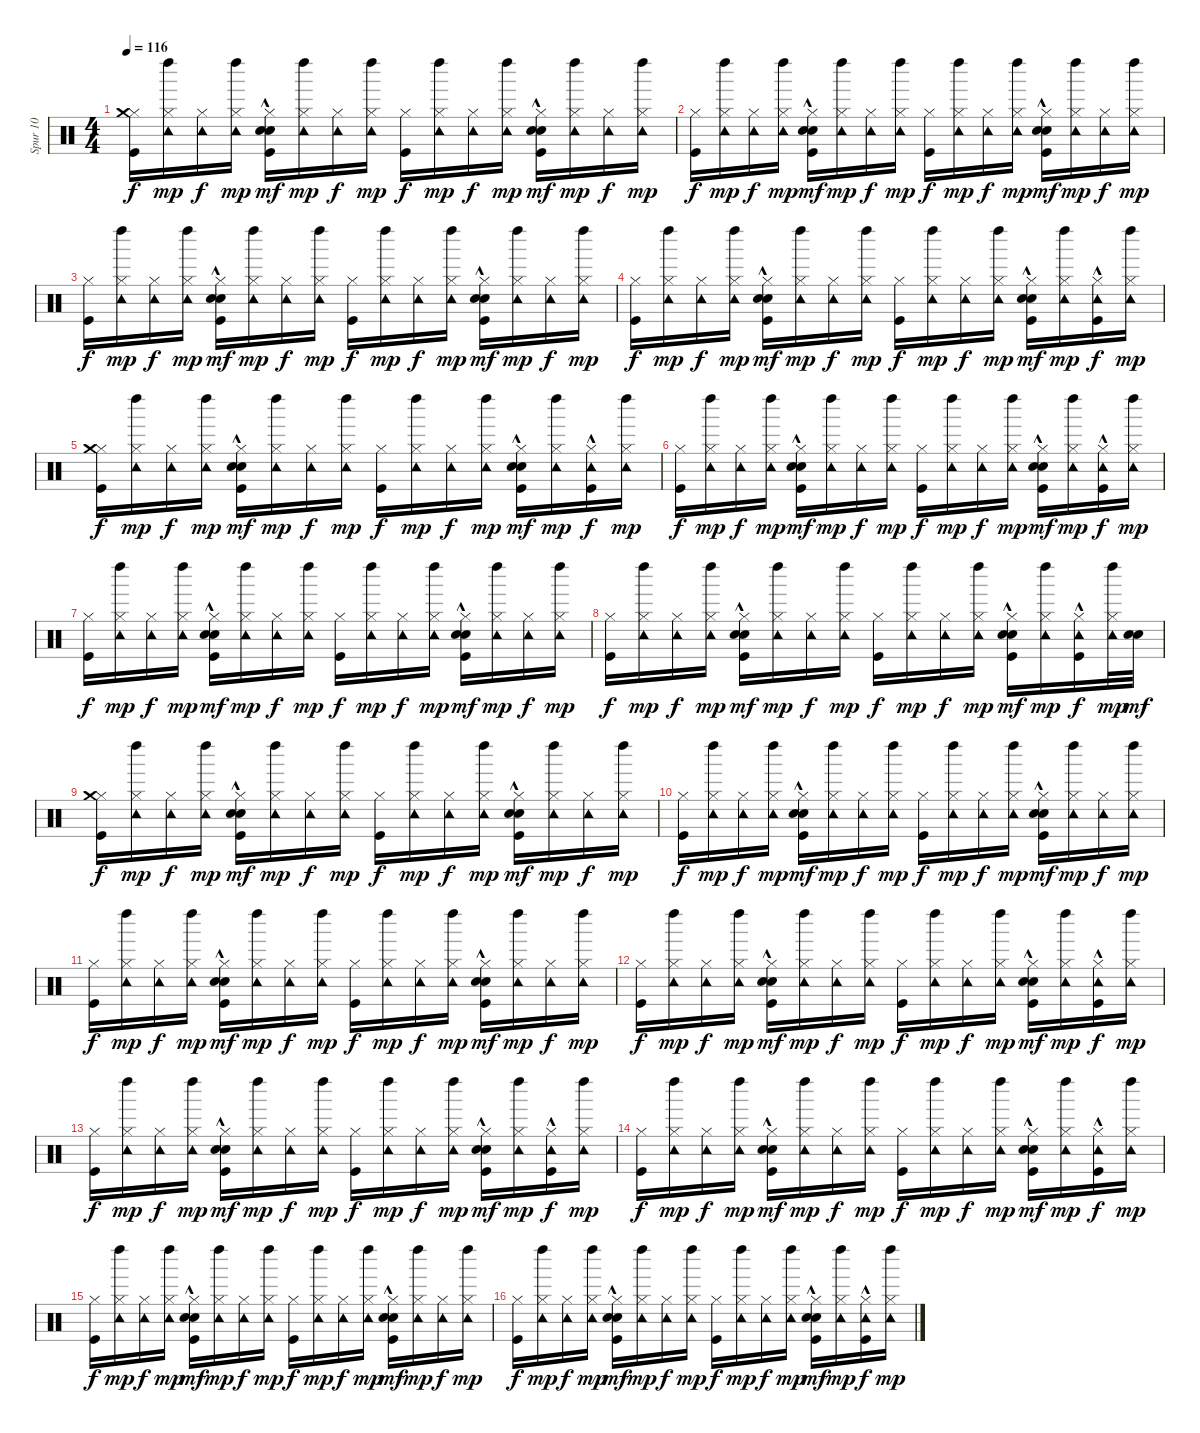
\track ("Spur 10" "Spur 10") {instrument percussion}
\staff {score}
\articulation defaults
\ts (4 4)
\tempo 116
\clef neutral
\ks c
("Kick (hit)" "Hi-Hat (closed)" "Crash medium (hit)").16{dy f} ("Left Maraca (hit)" "Hi-Hat (closed)" "Tambourine (hit)").16{dy mp} ("Hi-Hat (closed)" "Tambourine (hit)").16{dy f} ("Left Maraca (hit)" "Hi-Hat (closed)" "Tambourine (hit)").16{dy mp} ("Kick (hit)"{hac} "Snare (hit) 2"{hac} "Hi-Hat (closed)" "Hand Clap (hit)"{hac}).16{dy mf} ("Left Maraca (hit)" "Hi-Hat (closed)" "Tambourine (hit)").16{dy mp} ("Hi-Hat (closed)" "Tambourine (hit)").16{dy f} ("Left Maraca (hit)" "Hi-Hat (closed)" "Tambourine (hit)").16{dy mp} ("Kick (hit)" "Hi-Hat (closed)").16{dy f} ("Left Maraca (hit)" "Hi-Hat (closed)" "Tambourine (hit)").16{dy mp} ("Hi-Hat (closed)" "Tambourine (hit)").16{dy f} ("Left Maraca (hit)" "Hi-Hat (closed)" "Tambourine (hit)").16{dy mp} ("Kick (hit)"{hac} "Snare (hit) 2"{hac} "Hi-Hat (closed)" "Hand Clap (hit)"{hac}).16{dy mf} ("Left Maraca (hit)" "Hi-Hat (closed)" "Tambourine (hit)").16{dy mp} ("Hi-Hat (closed)" "Tambourine (hit)").16{dy f} ("Left Maraca (hit)" "Hi-Hat (closed)" "Tambourine (hit)").16{dy mp} |
("Kick (hit)" "Hi-Hat (closed)").16{dy f} ("Left Maraca (hit)" "Hi-Hat (closed)" "Tambourine (hit)").16{dy mp} ("Hi-Hat (closed)" "Tambourine (hit)").16{dy f} ("Left Maraca (hit)" "Hi-Hat (closed)" "Tambourine (hit)").16{dy mp} ("Kick (hit)"{hac} "Snare (hit) 2"{hac} "Hi-Hat (closed)" "Hand Clap (hit)"{hac}).16{dy mf} ("Left Maraca (hit)" "Hi-Hat (closed)" "Tambourine (hit)").16{dy mp} ("Hi-Hat (closed)" "Tambourine (hit)").16{dy f} ("Left Maraca (hit)" "Hi-Hat (closed)" "Tambourine (hit)").16{dy mp} ("Kick (hit)" "Hi-Hat (closed)").16{dy f} ("Left Maraca (hit)" "Hi-Hat (closed)" "Tambourine (hit)").16{dy mp} ("Hi-Hat (closed)" "Tambourine (hit)").16{dy f} ("Left Maraca (hit)" "Hi-Hat (closed)" "Tambourine (hit)").16{dy mp} ("Kick (hit)"{hac} "Snare (hit) 2"{hac} "Hi-Hat (closed)" "Hand Clap (hit)"{hac}).16{dy mf} ("Left Maraca (hit)" "Hi-Hat (closed)" "Tambourine (hit)").16{dy mp} ("Hi-Hat (closed)" "Tambourine (hit)").16{dy f} ("Left Maraca (hit)" "Hi-Hat (closed)" "Tambourine (hit)").16{dy mp} |
("Kick (hit)" "Hi-Hat (closed)").16{dy f} ("Left Maraca (hit)" "Hi-Hat (closed)" "Tambourine (hit)").16{dy mp} ("Hi-Hat (closed)" "Tambourine (hit)").16{dy f} ("Left Maraca (hit)" "Hi-Hat (closed)" "Tambourine (hit)").16{dy mp} ("Kick (hit)"{hac} "Snare (hit) 2"{hac} "Hi-Hat (closed)" "Hand Clap (hit)"{hac}).16{dy mf} ("Left Maraca (hit)" "Hi-Hat (closed)" "Tambourine (hit)").16{dy mp} ("Hi-Hat (closed)" "Tambourine (hit)").16{dy f} ("Left Maraca (hit)" "Hi-Hat (closed)" "Tambourine (hit)").16{dy mp} ("Kick (hit)" "Hi-Hat (closed)").16{dy f} ("Left Maraca (hit)" "Hi-Hat (closed)" "Tambourine (hit)").16{dy mp} ("Hi-Hat (closed)" "Tambourine (hit)").16{dy f} ("Left Maraca (hit)" "Hi-Hat (closed)" "Tambourine (hit)").16{dy mp} ("Kick (hit)"{hac} "Snare (hit) 2"{hac} "Hi-Hat (closed)" "Hand Clap (hit)"{hac}).16{dy mf} ("Left Maraca (hit)" "Hi-Hat (closed)" "Tambourine (hit)").16{dy mp} ("Hi-Hat (closed)" "Tambourine (hit)").16{dy f} ("Left Maraca (hit)" "Hi-Hat (closed)" "Tambourine (hit)").16{dy mp} |
("Kick (hit)" "Hi-Hat (closed)").16{dy f} ("Left Maraca (hit)" "Hi-Hat (closed)" "Tambourine (hit)").16{dy mp} ("Hi-Hat (closed)" "Tambourine (hit)").16{dy f} ("Left Maraca (hit)" "Hi-Hat (closed)" "Tambourine (hit)").16{dy mp} ("Kick (hit)"{hac} "Snare (hit) 2"{hac} "Hi-Hat (closed)" "Hand Clap (hit)"{hac}).16{dy mf} ("Left Maraca (hit)" "Hi-Hat (closed)" "Tambourine (hit)").16{dy mp} ("Hi-Hat (closed)" "Tambourine (hit)").16{dy f} ("Left Maraca (hit)" "Hi-Hat (closed)" "Tambourine (hit)").16{dy mp} ("Kick (hit)" "Hi-Hat (closed)").16{dy f} ("Left Maraca (hit)" "Hi-Hat (closed)" "Tambourine (hit)").16{dy mp} ("Hi-Hat (closed)" "Tambourine (hit)").16{dy f} ("Left Maraca (hit)" "Hi-Hat (closed)" "Tambourine (hit)").16{dy mp} ("Kick (hit)"{hac} "Snare (hit) 2"{hac} "Hi-Hat (closed)" "Hand Clap (hit)"{hac}).16{dy mf} ("Left Maraca (hit)" "Hi-Hat (closed)" "Tambourine (hit)").16{dy mp} ("Kick (hit)"{hac} "Hi-Hat (closed)" "Tambourine (hit)").16{dy f} ("Left Maraca (hit)" "Hi-Hat (closed)" "Tambourine (hit)").16{dy mp} |
("Kick (hit)" "Hi-Hat (closed)" "Crash medium (hit)").16{dy f} ("Left Maraca (hit)" "Hi-Hat (closed)" "Tambourine (hit)").16{dy mp} ("Hi-Hat (closed)" "Tambourine (hit)").16{dy f} ("Left Maraca (hit)" "Hi-Hat (closed)" "Tambourine (hit)").16{dy mp} ("Kick (hit)"{hac} "Snare (hit) 2"{hac} "Hi-Hat (closed)" "Hand Clap (hit)"{hac}).16{dy mf} ("Left Maraca (hit)" "Hi-Hat (closed)" "Tambourine (hit)").16{dy mp} ("Hi-Hat (closed)" "Tambourine (hit)").16{dy f} ("Left Maraca (hit)" "Hi-Hat (closed)" "Tambourine (hit)").16{dy mp} ("Kick (hit)" "Hi-Hat (closed)").16{dy f} ("Left Maraca (hit)" "Hi-Hat (closed)" "Tambourine (hit)").16{dy mp} ("Hi-Hat (closed)" "Tambourine (hit)").16{dy f} ("Left Maraca (hit)" "Hi-Hat (closed)" "Tambourine (hit)").16{dy mp} ("Kick (hit)"{hac} "Snare (hit) 2"{hac} "Hi-Hat (closed)" "Hand Clap (hit)"{hac}).16{dy mf} ("Left Maraca (hit)" "Hi-Hat (closed)" "Tambourine (hit)").16{dy mp} ("Kick (hit)"{hac} "Hi-Hat (closed)" "Tambourine (hit)").16{dy f} ("Left Maraca (hit)" "Hi-Hat (closed)" "Tambourine (hit)").16{dy mp} |
("Kick (hit)" "Hi-Hat (closed)").16{dy f} ("Left Maraca (hit)" "Hi-Hat (closed)" "Tambourine (hit)").16{dy mp} ("Hi-Hat (closed)" "Tambourine (hit)").16{dy f} ("Left Maraca (hit)" "Hi-Hat (closed)" "Tambourine (hit)").16{dy mp} ("Kick (hit)"{hac} "Snare (hit) 2"{hac} "Hi-Hat (closed)" "Hand Clap (hit)"{hac}).16{dy mf} ("Left Maraca (hit)" "Hi-Hat (closed)" "Tambourine (hit)").16{dy mp} ("Hi-Hat (closed)" "Tambourine (hit)").16{dy f} ("Left Maraca (hit)" "Hi-Hat (closed)" "Tambourine (hit)").16{dy mp} ("Kick (hit)" "Hi-Hat (closed)").16{dy f} ("Left Maraca (hit)" "Hi-Hat (closed)" "Tambourine (hit)").16{dy mp} ("Hi-Hat (closed)" "Tambourine (hit)").16{dy f} ("Left Maraca (hit)" "Hi-Hat (closed)" "Tambourine (hit)").16{dy mp} ("Kick (hit)"{hac} "Snare (hit) 2"{hac} "Hi-Hat (closed)" "Hand Clap (hit)"{hac}).16{dy mf} ("Left Maraca (hit)" "Hi-Hat (closed)" "Tambourine (hit)").16{dy mp} ("Kick (hit)"{hac} "Hi-Hat (closed)" "Tambourine (hit)").16{dy f} ("Left Maraca (hit)" "Hi-Hat (closed)" "Tambourine (hit)").16{dy mp} |
("Kick (hit)" "Hi-Hat (closed)").16{dy f} ("Left Maraca (hit)" "Hi-Hat (closed)" "Tambourine (hit)").16{dy mp} ("Hi-Hat (closed)" "Tambourine (hit)").16{dy f} ("Left Maraca (hit)" "Hi-Hat (closed)" "Tambourine (hit)").16{dy mp} ("Kick (hit)"{hac} "Snare (hit) 2"{hac} "Hi-Hat (closed)" "Hand Clap (hit)"{hac}).16{dy mf} ("Left Maraca (hit)" "Hi-Hat (closed)" "Tambourine (hit)").16{dy mp} ("Hi-Hat (closed)" "Tambourine (hit)").16{dy f} ("Left Maraca (hit)" "Hi-Hat (closed)" "Tambourine (hit)").16{dy mp} ("Kick (hit)" "Hi-Hat (closed)").16{dy f} ("Left Maraca (hit)" "Hi-Hat (closed)" "Tambourine (hit)").16{dy mp} ("Hi-Hat (closed)" "Tambourine (hit)").16{dy f} ("Left Maraca (hit)" "Hi-Hat (closed)" "Tambourine (hit)").16{dy mp} ("Kick (hit)"{hac} "Snare (hit) 2"{hac} "Hi-Hat (closed)" "Hand Clap (hit)"{hac}).16{dy mf} ("Left Maraca (hit)" "Hi-Hat (closed)" "Tambourine (hit)").16{dy mp} ("Hi-Hat (closed)" "Tambourine (hit)").16{dy f} ("Left Maraca (hit)" "Hi-Hat (closed)" "Tambourine (hit)").16{dy mp} |
("Kick (hit)" "Hi-Hat (closed)").16{dy f} ("Left Maraca (hit)" "Hi-Hat (closed)" "Tambourine (hit)").16{dy mp} ("Hi-Hat (closed)" "Tambourine (hit)").16{dy f} ("Left Maraca (hit)" "Hi-Hat (closed)" "Tambourine (hit)").16{dy mp} ("Kick (hit)"{hac} "Snare (hit) 2"{hac} "Hi-Hat (closed)" "Hand Clap (hit)"{hac}).16{dy mf} ("Left Maraca (hit)" "Hi-Hat (closed)" "Tambourine (hit)").16{dy mp} ("Hi-Hat (closed)" "Tambourine (hit)").16{dy f} ("Left Maraca (hit)" "Hi-Hat (closed)" "Tambourine (hit)").16{dy mp} ("Kick (hit)" "Hi-Hat (closed)").16{dy f} ("Left Maraca (hit)" "Hi-Hat (closed)" "Tambourine (hit)").16{dy mp} ("Hi-Hat (closed)" "Tambourine (hit)").16{dy f} ("Left Maraca (hit)" "Hi-Hat (closed)" "Tambourine (hit)").16{dy mp} ("Kick (hit)"{hac} "Snare (hit) 2"{hac} "Hi-Hat (closed)" "Hand Clap (hit)"{hac}).16{dy mf} ("Left Maraca (hit)" "Hi-Hat (closed)" "Tambourine (hit)").16{dy mp} ("Kick (hit)"{hac} "Hi-Hat (closed)" "Tambourine (hit)").16{dy f} ("Left Maraca (hit)" "Hi-Hat (closed)" "Tambourine (hit)").32{dy mp} ("Snare (hit) 2" "Snare (hit) 2").32{dy mf} |
("Kick (hit)" "Hi-Hat (closed)" "Crash medium (hit)").16{dy f} ("Left Maraca (hit)" "Hi-Hat (closed)" "Tambourine (hit)").16{dy mp} ("Hi-Hat (closed)" "Tambourine (hit)").16{dy f} ("Left Maraca (hit)" "Hi-Hat (closed)" "Tambourine (hit)").16{dy mp} ("Kick (hit)"{hac} "Snare (hit) 2"{hac} "Hi-Hat (closed)" "Hand Clap (hit)"{hac}).16{dy mf} ("Left Maraca (hit)" "Hi-Hat (closed)" "Tambourine (hit)").16{dy mp} ("Hi-Hat (closed)" "Tambourine (hit)").16{dy f} ("Left Maraca (hit)" "Hi-Hat (closed)" "Tambourine (hit)").16{dy mp} ("Kick (hit)" "Hi-Hat (closed)").16{dy f} ("Left Maraca (hit)" "Hi-Hat (closed)" "Tambourine (hit)").16{dy mp} ("Hi-Hat (closed)" "Tambourine (hit)").16{dy f} ("Left Maraca (hit)" "Hi-Hat (closed)" "Tambourine (hit)").16{dy mp} ("Kick (hit)"{hac} "Snare (hit) 2"{hac} "Hi-Hat (closed)" "Hand Clap (hit)"{hac}).16{dy mf} ("Left Maraca (hit)" "Hi-Hat (closed)" "Tambourine (hit)").16{dy mp} ("Hi-Hat (closed)" "Tambourine (hit)").16{dy f} ("Left Maraca (hit)" "Hi-Hat (closed)" "Tambourine (hit)").16{dy mp} |
("Kick (hit)" "Hi-Hat (closed)").16{dy f} ("Left Maraca (hit)" "Hi-Hat (closed)" "Tambourine (hit)").16{dy mp} ("Hi-Hat (closed)" "Tambourine (hit)").16{dy f} ("Left Maraca (hit)" "Hi-Hat (closed)" "Tambourine (hit)").16{dy mp} ("Kick (hit)"{hac} "Snare (hit) 2"{hac} "Hi-Hat (closed)" "Hand Clap (hit)"{hac}).16{dy mf} ("Left Maraca (hit)" "Hi-Hat (closed)" "Tambourine (hit)").16{dy mp} ("Hi-Hat (closed)" "Tambourine (hit)").16{dy f} ("Left Maraca (hit)" "Hi-Hat (closed)" "Tambourine (hit)").16{dy mp} ("Kick (hit)" "Hi-Hat (closed)").16{dy f} ("Left Maraca (hit)" "Hi-Hat (closed)" "Tambourine (hit)").16{dy mp} ("Hi-Hat (closed)" "Tambourine (hit)").16{dy f} ("Left Maraca (hit)" "Hi-Hat (closed)" "Tambourine (hit)").16{dy mp} ("Kick (hit)"{hac} "Snare (hit) 2"{hac} "Hi-Hat (closed)" "Hand Clap (hit)"{hac}).16{dy mf} ("Left Maraca (hit)" "Hi-Hat (closed)" "Tambourine (hit)").16{dy mp} ("Hi-Hat (closed)" "Tambourine (hit)").16{dy f} ("Left Maraca (hit)" "Hi-Hat (closed)" "Tambourine (hit)").16{dy mp} |
("Kick (hit)" "Hi-Hat (closed)").16{dy f} ("Left Maraca (hit)" "Hi-Hat (closed)" "Tambourine (hit)").16{dy mp} ("Hi-Hat (closed)" "Tambourine (hit)").16{dy f} ("Left Maraca (hit)" "Hi-Hat (closed)" "Tambourine (hit)").16{dy mp} ("Kick (hit)"{hac} "Snare (hit) 2"{hac} "Hi-Hat (closed)" "Hand Clap (hit)"{hac}).16{dy mf} ("Left Maraca (hit)" "Hi-Hat (closed)" "Tambourine (hit)").16{dy mp} ("Hi-Hat (closed)" "Tambourine (hit)").16{dy f} ("Left Maraca (hit)" "Hi-Hat (closed)" "Tambourine (hit)").16{dy mp} ("Kick (hit)" "Hi-Hat (closed)").16{dy f} ("Left Maraca (hit)" "Hi-Hat (closed)" "Tambourine (hit)").16{dy mp} ("Hi-Hat (closed)" "Tambourine (hit)").16{dy f} ("Left Maraca (hit)" "Hi-Hat (closed)" "Tambourine (hit)").16{dy mp} ("Kick (hit)"{hac} "Snare (hit) 2"{hac} "Hi-Hat (closed)" "Hand Clap (hit)"{hac}).16{dy mf} ("Left Maraca (hit)" "Hi-Hat (closed)" "Tambourine (hit)").16{dy mp} ("Hi-Hat (closed)" "Tambourine (hit)").16{dy f} ("Left Maraca (hit)" "Hi-Hat (closed)" "Tambourine (hit)").16{dy mp} |
("Kick (hit)" "Hi-Hat (closed)").16{dy f} ("Left Maraca (hit)" "Hi-Hat (closed)" "Tambourine (hit)").16{dy mp} ("Hi-Hat (closed)" "Tambourine (hit)").16{dy f} ("Left Maraca (hit)" "Hi-Hat (closed)" "Tambourine (hit)").16{dy mp} ("Kick (hit)"{hac} "Snare (hit) 2"{hac} "Hi-Hat (closed)" "Hand Clap (hit)"{hac}).16{dy mf} ("Left Maraca (hit)" "Hi-Hat (closed)" "Tambourine (hit)").16{dy mp} ("Hi-Hat (closed)" "Tambourine (hit)").16{dy f} ("Left Maraca (hit)" "Hi-Hat (closed)" "Tambourine (hit)").16{dy mp} ("Kick (hit)" "Hi-Hat (closed)").16{dy f} ("Left Maraca (hit)" "Hi-Hat (closed)" "Tambourine (hit)").16{dy mp} ("Hi-Hat (closed)" "Tambourine (hit)").16{dy f} ("Left Maraca (hit)" "Hi-Hat (closed)" "Tambourine (hit)").16{dy mp} ("Kick (hit)"{hac} "Snare (hit) 2"{hac} "Hi-Hat (closed)" "Hand Clap (hit)"{hac}).16{dy mf} ("Left Maraca (hit)" "Hi-Hat (closed)" "Tambourine (hit)").16{dy mp} ("Kick (hit)"{hac} "Hi-Hat (closed)" "Tambourine (hit)").16{dy f} ("Left Maraca (hit)" "Hi-Hat (closed)" "Tambourine (hit)").16{dy mp} |
("Kick (hit)" "Hi-Hat (closed)").16{dy f} ("Left Maraca (hit)" "Hi-Hat (closed)" "Tambourine (hit)").16{dy mp} ("Hi-Hat (closed)" "Tambourine (hit)").16{dy f} ("Left Maraca (hit)" "Hi-Hat (closed)" "Tambourine (hit)").16{dy mp} ("Kick (hit)"{hac} "Snare (hit) 2"{hac} "Hi-Hat (closed)" "Hand Clap (hit)"{hac}).16{dy mf} ("Left Maraca (hit)" "Hi-Hat (closed)" "Tambourine (hit)").16{dy mp} ("Hi-Hat (closed)" "Tambourine (hit)").16{dy f} ("Left Maraca (hit)" "Hi-Hat (closed)" "Tambourine (hit)").16{dy mp} ("Kick (hit)" "Hi-Hat (closed)").16{dy f} ("Left Maraca (hit)" "Hi-Hat (closed)" "Tambourine (hit)").16{dy mp} ("Hi-Hat (closed)" "Tambourine (hit)").16{dy f} ("Left Maraca (hit)" "Hi-Hat (closed)" "Tambourine (hit)").16{dy mp} ("Kick (hit)"{hac} "Snare (hit) 2"{hac} "Hi-Hat (closed)" "Hand Clap (hit)"{hac}).16{dy mf} ("Left Maraca (hit)" "Hi-Hat (closed)" "Tambourine (hit)").16{dy mp} ("Kick (hit)"{hac} "Hi-Hat (closed)" "Tambourine (hit)").16{dy f} ("Left Maraca (hit)" "Hi-Hat (closed)" "Tambourine (hit)").16{dy mp} |
("Kick (hit)" "Hi-Hat (closed)").16{dy f} ("Left Maraca (hit)" "Hi-Hat (closed)" "Tambourine (hit)").16{dy mp} ("Hi-Hat (closed)" "Tambourine (hit)").16{dy f} ("Left Maraca (hit)" "Hi-Hat (closed)" "Tambourine (hit)").16{dy mp} ("Kick (hit)"{hac} "Snare (hit) 2"{hac} "Hi-Hat (closed)" "Hand Clap (hit)"{hac}).16{dy mf} ("Left Maraca (hit)" "Hi-Hat (closed)" "Tambourine (hit)").16{dy mp} ("Hi-Hat (closed)" "Tambourine (hit)").16{dy f} ("Left Maraca (hit)" "Hi-Hat (closed)" "Tambourine (hit)").16{dy mp} ("Kick (hit)" "Hi-Hat (closed)").16{dy f} ("Left Maraca (hit)" "Hi-Hat (closed)" "Tambourine (hit)").16{dy mp} ("Hi-Hat (closed)" "Tambourine (hit)").16{dy f} ("Left Maraca (hit)" "Hi-Hat (closed)" "Tambourine (hit)").16{dy mp} ("Kick (hit)"{hac} "Snare (hit) 2"{hac} "Hi-Hat (closed)" "Hand Clap (hit)"{hac}).16{dy mf} ("Left Maraca (hit)" "Hi-Hat (closed)" "Tambourine (hit)").16{dy mp} ("Kick (hit)"{hac} "Hi-Hat (closed)" "Tambourine (hit)").16{dy f} ("Left Maraca (hit)" "Hi-Hat (closed)" "Tambourine (hit)").16{dy mp} |
("Kick (hit)" "Hi-Hat (closed)").16{dy f} ("Left Maraca (hit)" "Hi-Hat (closed)" "Tambourine (hit)").16{dy mp} ("Hi-Hat (closed)" "Tambourine (hit)").16{dy f} ("Left Maraca (hit)" "Hi-Hat (closed)" "Tambourine (hit)").16{dy mp} ("Kick (hit)"{hac} "Snare (hit) 2"{hac} "Hi-Hat (closed)" "Hand Clap (hit)"{hac}).16{dy mf} ("Left Maraca (hit)" "Hi-Hat (closed)" "Tambourine (hit)").16{dy mp} ("Hi-Hat (closed)" "Tambourine (hit)").16{dy f} ("Left Maraca (hit)" "Hi-Hat (closed)" "Tambourine (hit)").16{dy mp} ("Kick (hit)" "Hi-Hat (closed)").16{dy f} ("Left Maraca (hit)" "Hi-Hat (closed)" "Tambourine (hit)").16{dy mp} ("Hi-Hat (closed)" "Tambourine (hit)").16{dy f} ("Left Maraca (hit)" "Hi-Hat (closed)" "Tambourine (hit)").16{dy mp} ("Kick (hit)"{hac} "Snare (hit) 2"{hac} "Hi-Hat (closed)" "Hand Clap (hit)"{hac}).16{dy mf} ("Left Maraca (hit)" "Hi-Hat (closed)" "Tambourine (hit)").16{dy mp} ("Hi-Hat (closed)" "Tambourine (hit)").16{dy f} ("Left Maraca (hit)" "Hi-Hat (closed)" "Tambourine (hit)").16{dy mp} |
("Kick (hit)" "Hi-Hat (closed)").16{dy f} ("Left Maraca (hit)" "Hi-Hat (closed)" "Tambourine (hit)").16{dy mp} ("Hi-Hat (closed)" "Tambourine (hit)").16{dy f} ("Left Maraca (hit)" "Hi-Hat (closed)" "Tambourine (hit)").16{dy mp} ("Kick (hit)"{hac} "Snare (hit) 2"{hac} "Hi-Hat (closed)" "Hand Clap (hit)"{hac}).16{dy mf} ("Left Maraca (hit)" "Hi-Hat (closed)" "Tambourine (hit)").16{dy mp} ("Hi-Hat (closed)" "Tambourine (hit)").16{dy f} ("Left Maraca (hit)" "Hi-Hat (closed)" "Tambourine (hit)").16{dy mp} ("Kick (hit)" "Hi-Hat (closed)").16{dy f} ("Left Maraca (hit)" "Hi-Hat (closed)" "Tambourine (hit)").16{dy mp} ("Hi-Hat (closed)" "Tambourine (hit)").16{dy f} ("Left Maraca (hit)" "Hi-Hat (closed)" "Tambourine (hit)").16{dy mp} ("Kick (hit)"{hac} "Snare (hit) 2"{hac} "Hi-Hat (closed)" "Hand Clap (hit)"{hac}).16{dy mf} ("Left Maraca (hit)" "Hi-Hat (closed)" "Tambourine (hit)").16{dy mp} ("Kick (hit)"{hac} "Hi-Hat (closed)" "Tambourine (hit)").16{dy f} ("Left Maraca (hit)" "Hi-Hat (closed)" "Tambourine (hit)").16{dy mp}
